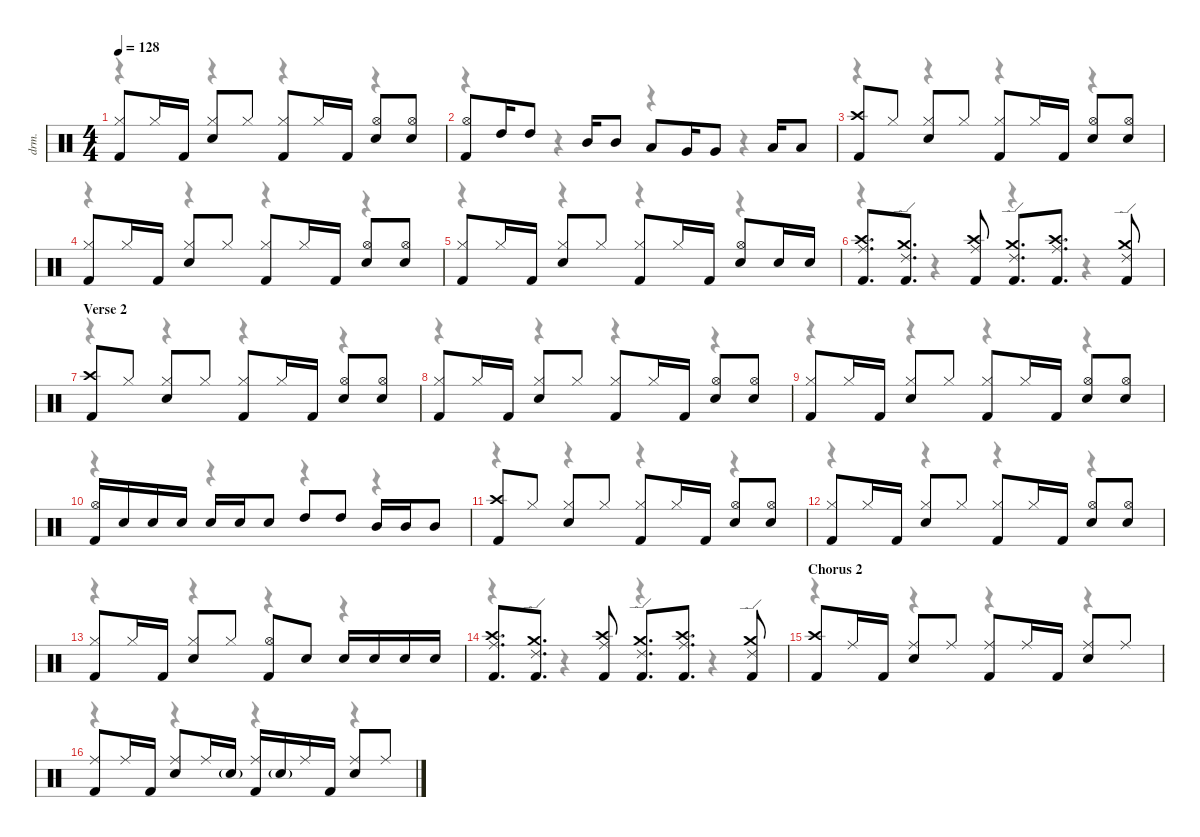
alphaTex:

\defaultSystemsLayout 4
\hideDynamics
\bracketExtendMode nobrackets
\track ("Drums" "drm.") {instrument percussion}
\staff {score}
\articulation defaults
\voice
\ts (4 4)
\tempo 128
\clef neutral
\ks c
("Kick (hit) 2" "Hi-Hat (closed)").8{dy fff} "Hi-Hat (closed)".16{dy p} "Kick (hit) 2".16{dy fff} ("Snare (hit) 2" "Hi-Hat (closed)").8 "Hi-Hat (closed)".8{dy p} ("Kick (hit) 2" "Hi-Hat (closed)").8{dy fff} "Hi-Hat (closed)".16{dy p} "Kick (hit) 2".16{dy fff} ("Snare (hit) 2" "Hi-Hat (open)").8 ("Snare (hit) 2" "Hi-Hat (open)").8 |
("Kick (hit) 2" "Hi-Hat (open)").8 "High Tom (hit)".16 "High Tom (hit)".8 "Mid Tom (hit)".16 "Mid Tom (hit)".8 "Low Tom (hit)".8 "Very Low Tom (hit)".16 "Very Low Tom (hit)".8 "Low Floor Tom (hit)".16 "Low Floor Tom (hit)".8 |
("Kick (hit) 2" "Crash high (hit)").8 "Hi-Hat (closed)".8{dy p} ("Snare (hit) 2" "Hi-Hat (closed)").8{dy fff} "Hi-Hat (closed)".8{dy p} ("Kick (hit) 2" "Hi-Hat (closed)").8{dy fff} "Hi-Hat (closed)".16{dy p} "Kick (hit) 2".16{dy fff} ("Snare (hit) 2" "Hi-Hat (open)").8 ("Snare (hit) 2" "Hi-Hat (open)").8 |
("Kick (hit) 2" "Hi-Hat (closed)").8 "Hi-Hat (closed)".16{dy p} "Kick (hit) 2".16{dy fff} ("Snare (hit) 2" "Hi-Hat (closed)").8 "Hi-Hat (closed)".8{dy p} ("Kick (hit) 2" "Hi-Hat (closed)").8{dy fff} "Hi-Hat (closed)".16{dy p} "Kick (hit) 2".16{dy fff} ("Snare (hit) 2" "Hi-Hat (open)").8 ("Snare (hit) 2" "Hi-Hat (open)").8 |
("Kick (hit) 2" "Hi-Hat (closed)").8 "Hi-Hat (closed)".16{dy p} "Kick (hit) 2".16{dy fff} ("Snare (hit) 2" "Hi-Hat (closed)").8 "Hi-Hat (closed)".8{dy p} ("Kick (hit) 2" "Hi-Hat (closed)").8{dy fff} "Hi-Hat (closed)".16{dy p} "Kick (hit) 2".16{dy fff} ("Snare (hit) 2" "Hi-Hat (open)").8 "Snare (hit) 2".16 "Snare (hit) 2".16 |
("Kick (hit) 2" "Ride (middle)" "Crash high (hit)").8{d} ("Kick (hit) 2" "Ride (edge) 2" "Crash medium (hit)").8{d} ("Kick (hit) 2" "Ride (middle)" "Crash high (hit)").8 ("Kick (hit) 2" "Ride (edge) 2" "Crash medium (hit)").8{d} ("Kick (hit) 2" "Ride (middle)" "Crash high (hit)").8{d} ("Kick (hit) 2" "Ride (edge) 2" "Crash medium (hit)").8 |
\section ("" "Verse 2")
("Kick (hit) 2" "Crash high (hit)").8 "Hi-Hat (closed)".8{dy p} ("Snare (hit) 2" "Hi-Hat (closed)").8{dy fff} "Hi-Hat (closed)".8{dy p} ("Kick (hit) 2" "Hi-Hat (closed)").8{dy fff} "Hi-Hat (closed)".16{dy p} "Kick (hit) 2".16{dy fff} ("Snare (hit) 2" "Hi-Hat (open)").8 ("Snare (hit) 2" "Hi-Hat (open)").8 |
("Kick (hit) 2" "Hi-Hat (closed)").8 "Hi-Hat (closed)".16{dy p} "Kick (hit) 2".16{dy fff} ("Snare (hit) 2" "Hi-Hat (closed)").8 "Hi-Hat (closed)".8{dy p} ("Kick (hit) 2" "Hi-Hat (closed)").8{dy fff} "Hi-Hat (closed)".16{dy p} "Kick (hit) 2".16{dy fff} ("Snare (hit) 2" "Hi-Hat (open)").8 ("Snare (hit) 2" "Hi-Hat (open)").8 |
("Kick (hit) 2" "Hi-Hat (closed)").8 "Hi-Hat (closed)".16{dy p} "Kick (hit) 2".16{dy fff} ("Snare (hit) 2" "Hi-Hat (closed)").8 "Hi-Hat (closed)".8{dy p} ("Kick (hit) 2" "Hi-Hat (closed)").8{dy fff} "Hi-Hat (closed)".16{dy p} "Kick (hit) 2".16{dy fff} ("Snare (hit) 2" "Hi-Hat (open)").8 ("Snare (hit) 2" "Hi-Hat (open)").8 |
("Kick (hit) 2" "Hi-Hat (open)").16 "Snare (hit) 2".16{dy p} "Snare (hit) 2".16 "Snare (hit) 2".16{dy fff} "Snare (hit) 2".16{dy p} "Snare (hit) 2".16{dy mf} "Snare (hit) 2".8{dy fff} "High Tom (hit)".8 "High Tom (hit)".8 "Mid Tom (hit)".16 "Mid Tom (hit)".16 "Mid Tom (hit)".8 |
("Kick (hit) 2" "Crash high (hit)").8 "Hi-Hat (closed)".8{dy p} ("Snare (hit) 2" "Hi-Hat (closed)").8{dy fff} "Hi-Hat (closed)".8{dy p} ("Kick (hit) 2" "Hi-Hat (closed)").8{dy fff} "Hi-Hat (closed)".16{dy p} "Kick (hit) 2".16{dy fff} ("Snare (hit) 2" "Hi-Hat (open)").8 ("Snare (hit) 2" "Hi-Hat (open)").8 |
("Kick (hit) 2" "Hi-Hat (closed)").8 "Hi-Hat (closed)".16{dy p} "Kick (hit) 2".16{dy fff} ("Snare (hit) 2" "Hi-Hat (closed)").8 "Hi-Hat (closed)".8{dy p} ("Kick (hit) 2" "Hi-Hat (closed)").8{dy fff} "Hi-Hat (closed)".16{dy p} "Kick (hit) 2".16{dy fff} ("Snare (hit) 2" "Hi-Hat (open)").8 ("Snare (hit) 2" "Hi-Hat (open)").8 |
("Kick (hit) 2" "Hi-Hat (closed)").8 "Hi-Hat (closed)".16{dy p} "Kick (hit) 2".16{dy fff} ("Snare (hit) 2" "Hi-Hat (closed)").8 "Hi-Hat (closed)".8{dy p} ("Kick (hit) 2" "Hi-Hat (open)").8{dy fff} "Snare (hit) 2".8{dy ff} "Snare (hit) 2".16 "Snare (hit) 2".16 "Snare (hit) 2".16{dy fff} "Snare (hit) 2".16 |
("Kick (hit) 2" "Ride (middle)" "Crash high (hit)").8{d} ("Kick (hit) 2" "Ride (edge) 2" "Crash medium (hit)").8{d} ("Kick (hit) 2" "Ride (middle)" "Crash high (hit)").8 ("Kick (hit) 2" "Ride (edge) 2" "Crash medium (hit)").8{d} ("Kick (hit) 2" "Ride (middle)" "Crash high (hit)").8{d} ("Kick (hit) 2" "Ride (edge) 2" "Crash medium (hit)").8 |
\section ("" "Chorus 2")
("Kick (hit) 2" "Crash high (hit)").8 "Ride (middle)".16{dy mp} "Kick (hit) 2".16{dy fff} ("Snare (hit) 2" "Ride (middle)").8 "Ride (middle)".8{dy mp} ("Kick (hit) 2" "Ride (middle)").8{dy fff} "Ride (middle)".16{dy mp} "Kick (hit) 2".16{dy fff} ("Snare (hit) 2" "Ride (middle)").8 "Ride (middle)".8{dy mp} |
("Kick (hit) 2" "Ride (middle)").8{dy fff} "Ride (middle)".16{dy mp} "Kick (hit) 2".16{dy fff} ("Snare (hit) 2" "Ride (middle)").8 "Ride (middle)".16{dy mp} "Snare (hit) 2"{g}.16{dy mf} ("Kick (hit) 2" "Ride (middle)").16{dy fff} "Snare (hit) 2"{g}.16{dy mf} "Ride (middle)".16{dy mp} "Kick (hit) 2".16{dy fff} ("Snare (hit) 2" "Ride (middle)").8 "Ride (middle)".8{dy mp}
\voice
\clef neutral
\ottava regular
\simile none
\ks c
r.4{dy mf} r.4 r.4 r.4 |
r.4 r.4 r.4 r.4 |
r.4 r.4 r.4 r.4 |
r.4 r.4 r.4 r.4 |
r.4 r.4 r.4 r.4 |
r.4 r.4 r.4 r.4 |
r.4 r.4 r.4 r.4 |
r.4 r.4 r.4 r.4 |
r.4 r.4 r.4 r.4 |
r.4 r.4 r.4 r.4 |
r.4 r.4 r.4 r.4 |
r.4 r.4 r.4 r.4 |
r.4 r.4 r.4 r.4 |
r.4 r.4 r.4 r.4 |
r.4 r.4 r.4 r.4 |
r.4 r.4 r.4 r.4
